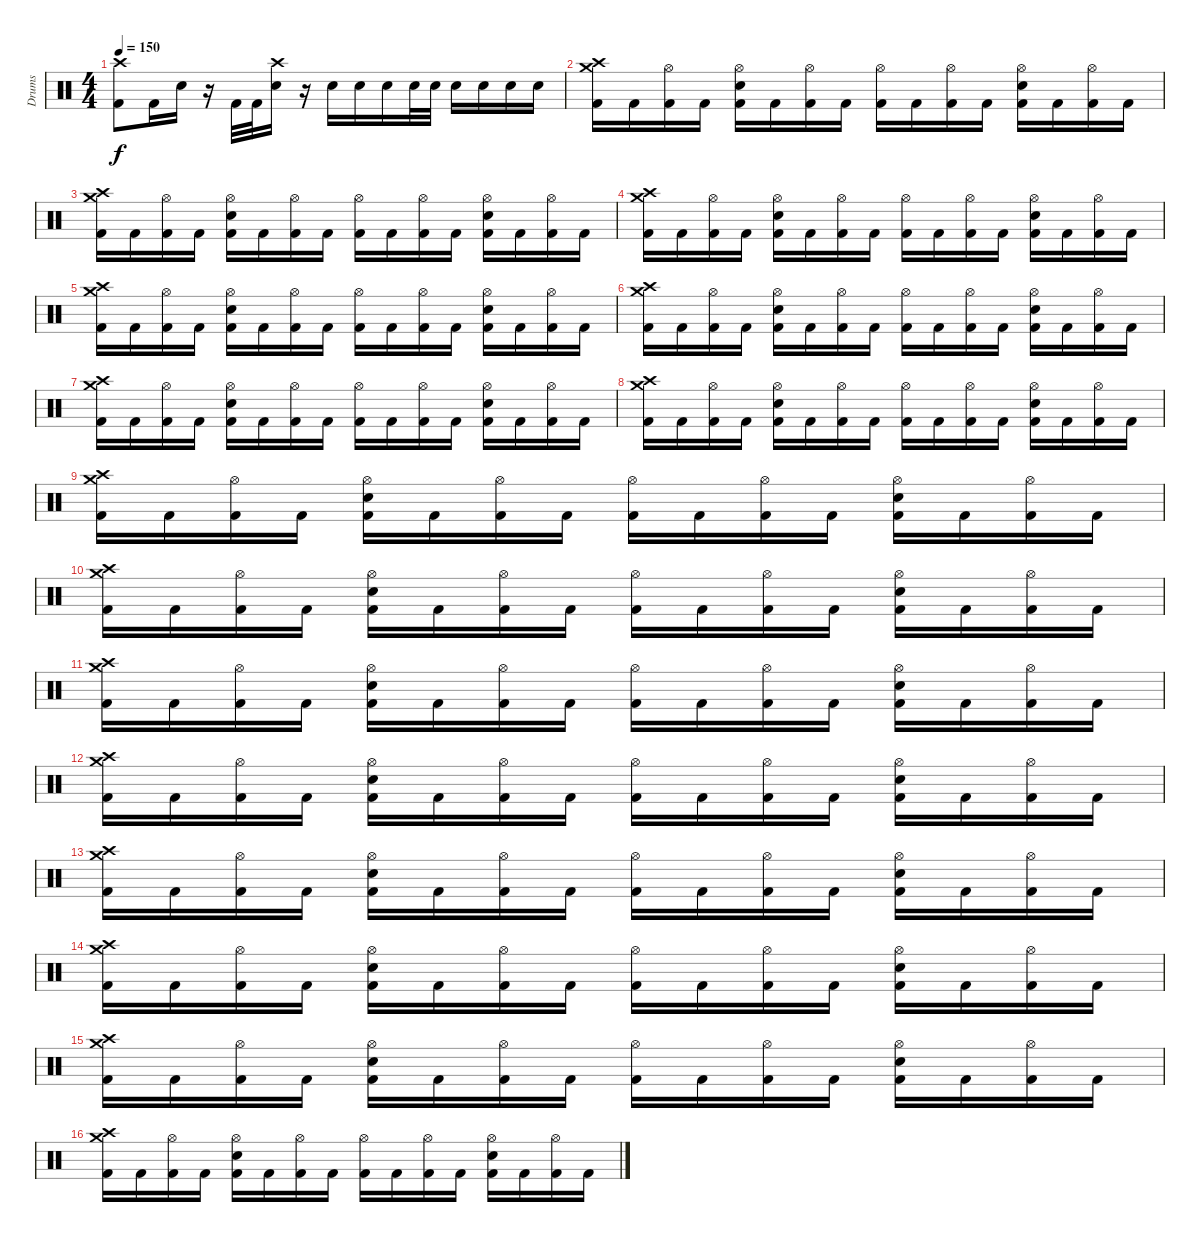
\track ("Drums" "Drums") {instrument percussion}
\staff {score}
\articulation defaults
\ts (4 4)
\tempo 150
\clef neutral
\ks c
("Crash high (hit)" "Kick (hit) 2").8{dy f} "Kick (hit) 2".16 "Electric Snare (hit)".16 r.16 "Kick (hit) 2".32 "Kick (hit) 2".32 ("Crash high (hit)" "Electric Snare (hit)").16 r.16 "Electric Snare (hit)".16 "Electric Snare (hit)".16 "Electric Snare (hit)".16 "Electric Snare (hit)".32 "Electric Snare (hit)".32 "Electric Snare (hit)".16 "Electric Snare (hit)".16 "Electric Snare (hit)".16 "Electric Snare (hit)".16 |
("Crash high (hit)" "Crash medium (hit)" "Kick (hit) 2").16 "Kick (hit) 2".16 ("Hi-Hat (open)" "Kick (hit) 2").16 "Kick (hit) 2".16 ("Hi-Hat (open)" "Electric Snare (hit)" "Kick (hit) 2").16 "Kick (hit) 2".16 ("Hi-Hat (open)" "Kick (hit) 2").16 "Kick (hit) 2".16 ("Hi-Hat (open)" "Kick (hit) 2").16 "Kick (hit) 2".16 ("Hi-Hat (open)" "Kick (hit) 2").16 "Kick (hit) 2".16 ("Hi-Hat (open)" "Electric Snare (hit)" "Kick (hit) 2").16 "Kick (hit) 2".16 ("Hi-Hat (open)" "Kick (hit) 2").16 "Kick (hit) 2".16 |
("Crash high (hit)" "Crash medium (hit)" "Kick (hit) 2").16 "Kick (hit) 2".16 ("Hi-Hat (open)" "Kick (hit) 2").16 "Kick (hit) 2".16 ("Hi-Hat (open)" "Electric Snare (hit)" "Kick (hit) 2").16 "Kick (hit) 2".16 ("Hi-Hat (open)" "Kick (hit) 2").16 "Kick (hit) 2".16 ("Hi-Hat (open)" "Kick (hit) 2").16 "Kick (hit) 2".16 ("Hi-Hat (open)" "Kick (hit) 2").16 "Kick (hit) 2".16 ("Hi-Hat (open)" "Electric Snare (hit)" "Kick (hit) 2").16 "Kick (hit) 2".16 ("Hi-Hat (open)" "Kick (hit) 2").16 "Kick (hit) 2".16 |
("Crash high (hit)" "Crash medium (hit)" "Kick (hit) 2").16 "Kick (hit) 2".16 ("Hi-Hat (open)" "Kick (hit) 2").16 "Kick (hit) 2".16 ("Hi-Hat (open)" "Electric Snare (hit)" "Kick (hit) 2").16 "Kick (hit) 2".16 ("Hi-Hat (open)" "Kick (hit) 2").16 "Kick (hit) 2".16 ("Hi-Hat (open)" "Kick (hit) 2").16 "Kick (hit) 2".16 ("Hi-Hat (open)" "Kick (hit) 2").16 "Kick (hit) 2".16 ("Hi-Hat (open)" "Electric Snare (hit)" "Kick (hit) 2").16 "Kick (hit) 2".16 ("Hi-Hat (open)" "Kick (hit) 2").16 "Kick (hit) 2".16 |
("Crash high (hit)" "Crash medium (hit)" "Kick (hit) 2").16 "Kick (hit) 2".16 ("Hi-Hat (open)" "Kick (hit) 2").16 "Kick (hit) 2".16 ("Hi-Hat (open)" "Electric Snare (hit)" "Kick (hit) 2").16 "Kick (hit) 2".16 ("Hi-Hat (open)" "Kick (hit) 2").16 "Kick (hit) 2".16 ("Hi-Hat (open)" "Kick (hit) 2").16 "Kick (hit) 2".16 ("Hi-Hat (open)" "Kick (hit) 2").16 "Kick (hit) 2".16 ("Hi-Hat (open)" "Electric Snare (hit)" "Kick (hit) 2").16 "Kick (hit) 2".16 ("Hi-Hat (open)" "Kick (hit) 2").16 "Kick (hit) 2".16 |
("Crash high (hit)" "Crash medium (hit)" "Kick (hit) 2").16 "Kick (hit) 2".16 ("Hi-Hat (open)" "Kick (hit) 2").16 "Kick (hit) 2".16 ("Hi-Hat (open)" "Electric Snare (hit)" "Kick (hit) 2").16 "Kick (hit) 2".16 ("Hi-Hat (open)" "Kick (hit) 2").16 "Kick (hit) 2".16 ("Hi-Hat (open)" "Kick (hit) 2").16 "Kick (hit) 2".16 ("Hi-Hat (open)" "Kick (hit) 2").16 "Kick (hit) 2".16 ("Hi-Hat (open)" "Electric Snare (hit)" "Kick (hit) 2").16 "Kick (hit) 2".16 ("Hi-Hat (open)" "Kick (hit) 2").16 "Kick (hit) 2".16 |
("Crash high (hit)" "Crash medium (hit)" "Kick (hit) 2").16 "Kick (hit) 2".16 ("Hi-Hat (open)" "Kick (hit) 2").16 "Kick (hit) 2".16 ("Hi-Hat (open)" "Electric Snare (hit)" "Kick (hit) 2").16 "Kick (hit) 2".16 ("Hi-Hat (open)" "Kick (hit) 2").16 "Kick (hit) 2".16 ("Hi-Hat (open)" "Kick (hit) 2").16 "Kick (hit) 2".16 ("Hi-Hat (open)" "Kick (hit) 2").16 "Kick (hit) 2".16 ("Hi-Hat (open)" "Electric Snare (hit)" "Kick (hit) 2").16 "Kick (hit) 2".16 ("Hi-Hat (open)" "Kick (hit) 2").16 "Kick (hit) 2".16 |
("Crash high (hit)" "Crash medium (hit)" "Kick (hit) 2").16 "Kick (hit) 2".16 ("Hi-Hat (open)" "Kick (hit) 2").16 "Kick (hit) 2".16 ("Hi-Hat (open)" "Electric Snare (hit)" "Kick (hit) 2").16 "Kick (hit) 2".16 ("Hi-Hat (open)" "Kick (hit) 2").16 "Kick (hit) 2".16 ("Hi-Hat (open)" "Kick (hit) 2").16 "Kick (hit) 2".16 ("Hi-Hat (open)" "Kick (hit) 2").16 "Kick (hit) 2".16 ("Hi-Hat (open)" "Electric Snare (hit)" "Kick (hit) 2").16 "Kick (hit) 2".16 ("Hi-Hat (open)" "Kick (hit) 2").16 "Kick (hit) 2".16 |
("Crash high (hit)" "Crash medium (hit)" "Kick (hit) 2").16 "Kick (hit) 2".16 ("Hi-Hat (open)" "Kick (hit) 2").16 "Kick (hit) 2".16 ("Hi-Hat (open)" "Electric Snare (hit)" "Kick (hit) 2").16 "Kick (hit) 2".16 ("Hi-Hat (open)" "Kick (hit) 2").16 "Kick (hit) 2".16 ("Hi-Hat (open)" "Kick (hit) 2").16 "Kick (hit) 2".16 ("Hi-Hat (open)" "Kick (hit) 2").16 "Kick (hit) 2".16 ("Hi-Hat (open)" "Electric Snare (hit)" "Kick (hit) 2").16 "Kick (hit) 2".16 ("Hi-Hat (open)" "Kick (hit) 2").16 "Kick (hit) 2".16 |
("Crash high (hit)" "Crash medium (hit)" "Kick (hit) 2").16 "Kick (hit) 2".16 ("Hi-Hat (open)" "Kick (hit) 2").16 "Kick (hit) 2".16 ("Hi-Hat (open)" "Electric Snare (hit)" "Kick (hit) 2").16 "Kick (hit) 2".16 ("Hi-Hat (open)" "Kick (hit) 2").16 "Kick (hit) 2".16 ("Hi-Hat (open)" "Kick (hit) 2").16 "Kick (hit) 2".16 ("Hi-Hat (open)" "Kick (hit) 2").16 "Kick (hit) 2".16 ("Hi-Hat (open)" "Electric Snare (hit)" "Kick (hit) 2").16 "Kick (hit) 2".16 ("Hi-Hat (open)" "Kick (hit) 2").16 "Kick (hit) 2".16 |
("Crash high (hit)" "Crash medium (hit)" "Kick (hit) 2").16 "Kick (hit) 2".16 ("Hi-Hat (open)" "Kick (hit) 2").16 "Kick (hit) 2".16 ("Hi-Hat (open)" "Electric Snare (hit)" "Kick (hit) 2").16 "Kick (hit) 2".16 ("Hi-Hat (open)" "Kick (hit) 2").16 "Kick (hit) 2".16 ("Hi-Hat (open)" "Kick (hit) 2").16 "Kick (hit) 2".16 ("Hi-Hat (open)" "Kick (hit) 2").16 "Kick (hit) 2".16 ("Hi-Hat (open)" "Electric Snare (hit)" "Kick (hit) 2").16 "Kick (hit) 2".16 ("Hi-Hat (open)" "Kick (hit) 2").16 "Kick (hit) 2".16 |
("Crash high (hit)" "Crash medium (hit)" "Kick (hit) 2").16 "Kick (hit) 2".16 ("Hi-Hat (open)" "Kick (hit) 2").16 "Kick (hit) 2".16 ("Hi-Hat (open)" "Electric Snare (hit)" "Kick (hit) 2").16 "Kick (hit) 2".16 ("Hi-Hat (open)" "Kick (hit) 2").16 "Kick (hit) 2".16 ("Hi-Hat (open)" "Kick (hit) 2").16 "Kick (hit) 2".16 ("Hi-Hat (open)" "Kick (hit) 2").16 "Kick (hit) 2".16 ("Hi-Hat (open)" "Electric Snare (hit)" "Kick (hit) 2").16 "Kick (hit) 2".16 ("Hi-Hat (open)" "Kick (hit) 2").16 "Kick (hit) 2".16 |
("Crash high (hit)" "Crash medium (hit)" "Kick (hit) 2").16 "Kick (hit) 2".16 ("Hi-Hat (open)" "Kick (hit) 2").16 "Kick (hit) 2".16 ("Hi-Hat (open)" "Electric Snare (hit)" "Kick (hit) 2").16 "Kick (hit) 2".16 ("Hi-Hat (open)" "Kick (hit) 2").16 "Kick (hit) 2".16 ("Hi-Hat (open)" "Kick (hit) 2").16 "Kick (hit) 2".16 ("Hi-Hat (open)" "Kick (hit) 2").16 "Kick (hit) 2".16 ("Hi-Hat (open)" "Electric Snare (hit)" "Kick (hit) 2").16 "Kick (hit) 2".16 ("Hi-Hat (open)" "Kick (hit) 2").16 "Kick (hit) 2".16 |
("Crash high (hit)" "Crash medium (hit)" "Kick (hit) 2").16 "Kick (hit) 2".16 ("Hi-Hat (open)" "Kick (hit) 2").16 "Kick (hit) 2".16 ("Hi-Hat (open)" "Electric Snare (hit)" "Kick (hit) 2").16 "Kick (hit) 2".16 ("Hi-Hat (open)" "Kick (hit) 2").16 "Kick (hit) 2".16 ("Hi-Hat (open)" "Kick (hit) 2").16 "Kick (hit) 2".16 ("Hi-Hat (open)" "Kick (hit) 2").16 "Kick (hit) 2".16 ("Hi-Hat (open)" "Electric Snare (hit)" "Kick (hit) 2").16 "Kick (hit) 2".16 ("Hi-Hat (open)" "Kick (hit) 2").16 "Kick (hit) 2".16 |
("Crash high (hit)" "Crash medium (hit)" "Kick (hit) 2").16 "Kick (hit) 2".16 ("Hi-Hat (open)" "Kick (hit) 2").16 "Kick (hit) 2".16 ("Hi-Hat (open)" "Electric Snare (hit)" "Kick (hit) 2").16 "Kick (hit) 2".16 ("Hi-Hat (open)" "Kick (hit) 2").16 "Kick (hit) 2".16 ("Hi-Hat (open)" "Kick (hit) 2").16 "Kick (hit) 2".16 ("Hi-Hat (open)" "Kick (hit) 2").16 "Kick (hit) 2".16 ("Hi-Hat (open)" "Electric Snare (hit)" "Kick (hit) 2").16 "Kick (hit) 2".16 ("Hi-Hat (open)" "Kick (hit) 2").16 "Kick (hit) 2".16 |
("Crash high (hit)" "Crash medium (hit)" "Kick (hit) 2").16 "Kick (hit) 2".16 ("Hi-Hat (open)" "Kick (hit) 2").16 "Kick (hit) 2".16 ("Hi-Hat (open)" "Electric Snare (hit)" "Kick (hit) 2").16 "Kick (hit) 2".16 ("Hi-Hat (open)" "Kick (hit) 2").16 "Kick (hit) 2".16 ("Hi-Hat (open)" "Kick (hit) 2").16 "Kick (hit) 2".16 ("Hi-Hat (open)" "Kick (hit) 2").16 "Kick (hit) 2".16 ("Hi-Hat (open)" "Electric Snare (hit)" "Kick (hit) 2").16 "Kick (hit) 2".16 ("Hi-Hat (open)" "Kick (hit) 2").16 "Kick (hit) 2".16
